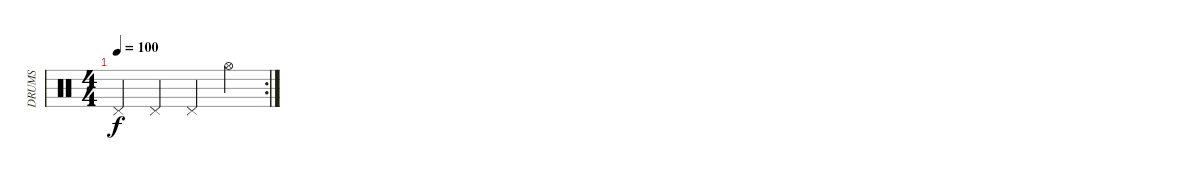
\track ("DRUMS" "DRUMS") {instrument percussion}
\staff {score}
\articulation defaults
\rc 2
\ts (4 4)
\tempo 100
\clef neutral
\ks c "Pedal Hi-Hat (hit)".4{dy f} "Pedal Hi-Hat (hit)".4 "Pedal Hi-Hat (hit)".4 "Hi-Hat (open)".4
